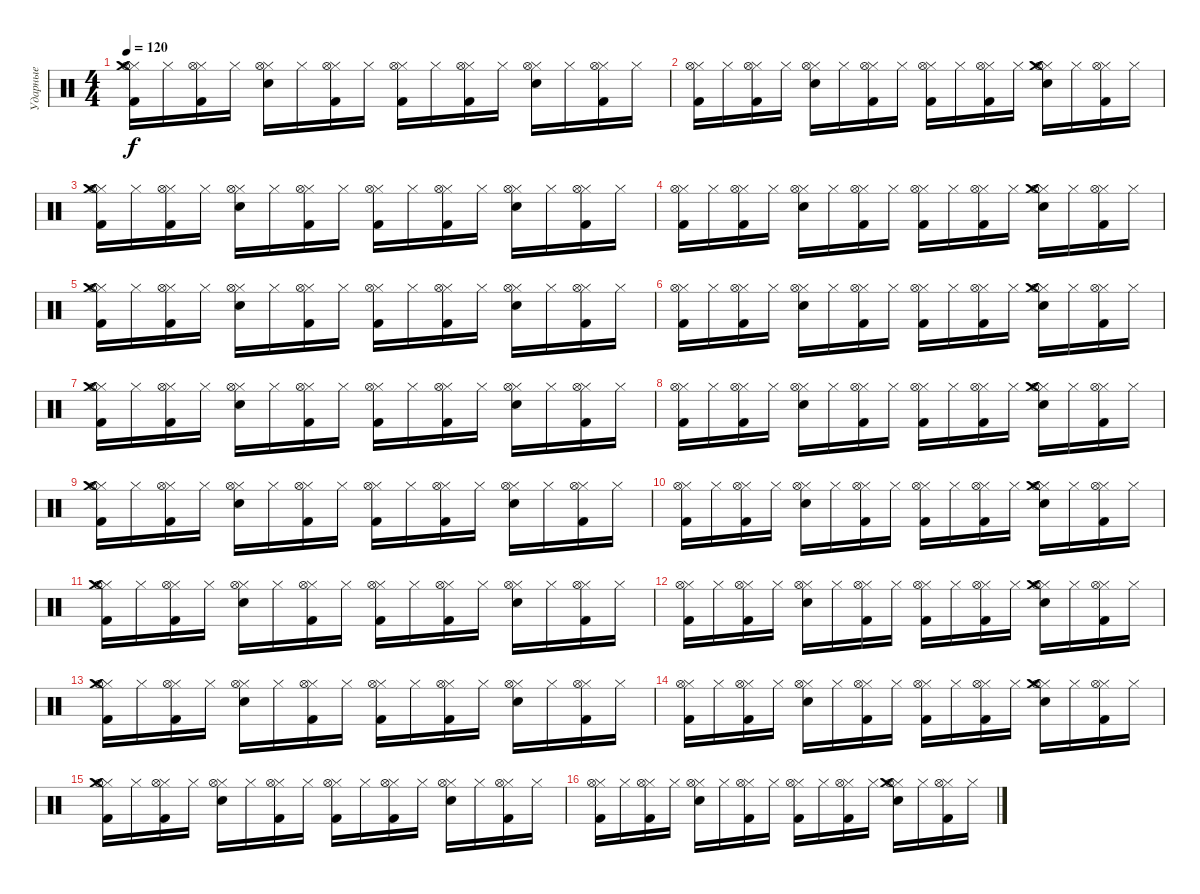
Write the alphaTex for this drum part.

\track ("Ударные" "Ударные") {instrument percussion}
\staff {score}
\articulation defaults
\ts (4 4)
\tempo 120
\clef neutral
\ks c
("Hi-Hat (closed)" "Crash medium (hit)" "Hi-Hat (open)" "Kick (hit) 2").16{dy f} "Hi-Hat (closed)".16 ("Hi-Hat (closed)" "Hi-Hat (open)" "Kick (hit) 2").16 "Hi-Hat (closed)".16 ("Hi-Hat (closed)" "Snare (hit) 2" "Hi-Hat (open)").16 "Hi-Hat (closed)".16 ("Hi-Hat (closed)" "Hi-Hat (open)" "Kick (hit) 2").16 "Hi-Hat (closed)".16 ("Hi-Hat (closed)" "Hi-Hat (open)" "Kick (hit) 2").16 "Hi-Hat (closed)".16 ("Hi-Hat (closed)" "Hi-Hat (open)" "Kick (hit) 2").16 "Hi-Hat (closed)".16 ("Hi-Hat (closed)" "Snare (hit) 2" "Hi-Hat (open)").16 "Hi-Hat (closed)".16 ("Hi-Hat (closed)" "Hi-Hat (open)" "Kick (hit) 2").16 "Hi-Hat (closed)".16 |
("Hi-Hat (closed)" "Hi-Hat (open)" "Kick (hit) 2").16 "Hi-Hat (closed)".16 ("Hi-Hat (closed)" "Hi-Hat (open)" "Kick (hit) 2").16 "Hi-Hat (closed)".16 ("Hi-Hat (closed)" "Snare (hit) 2" "Hi-Hat (open)").16 "Hi-Hat (closed)".16 ("Hi-Hat (closed)" "Hi-Hat (open)" "Kick (hit) 2").16 "Hi-Hat (closed)".16 ("Hi-Hat (closed)" "Hi-Hat (open)" "Kick (hit) 2").16 "Hi-Hat (closed)".16 ("Hi-Hat (closed)" "Hi-Hat (open)" "Kick (hit) 2").16 "Hi-Hat (closed)".16 ("Hi-Hat (closed)" "Snare (hit) 2" "Hi-Hat (open)" "Crash medium (hit)").16 "Hi-Hat (closed)".16 ("Hi-Hat (closed)" "Hi-Hat (open)" "Kick (hit) 2").16 "Hi-Hat (closed)".16 |
("Hi-Hat (closed)" "Crash medium (hit)" "Hi-Hat (open)" "Kick (hit) 2").16 "Hi-Hat (closed)".16 ("Hi-Hat (closed)" "Hi-Hat (open)" "Kick (hit) 2").16 "Hi-Hat (closed)".16 ("Hi-Hat (closed)" "Snare (hit) 2" "Hi-Hat (open)").16 "Hi-Hat (closed)".16 ("Hi-Hat (closed)" "Hi-Hat (open)" "Kick (hit) 2").16 "Hi-Hat (closed)".16 ("Hi-Hat (closed)" "Hi-Hat (open)" "Kick (hit) 2").16 "Hi-Hat (closed)".16 ("Hi-Hat (closed)" "Hi-Hat (open)" "Kick (hit) 2").16 "Hi-Hat (closed)".16 ("Hi-Hat (closed)" "Snare (hit) 2" "Hi-Hat (open)").16 "Hi-Hat (closed)".16 ("Hi-Hat (closed)" "Hi-Hat (open)" "Kick (hit) 2").16 "Hi-Hat (closed)".16 |
("Hi-Hat (closed)" "Hi-Hat (open)" "Kick (hit) 2").16 "Hi-Hat (closed)".16 ("Hi-Hat (closed)" "Hi-Hat (open)" "Kick (hit) 2").16 "Hi-Hat (closed)".16 ("Hi-Hat (closed)" "Snare (hit) 2" "Hi-Hat (open)").16 "Hi-Hat (closed)".16 ("Hi-Hat (closed)" "Hi-Hat (open)" "Kick (hit) 2").16 "Hi-Hat (closed)".16 ("Hi-Hat (closed)" "Hi-Hat (open)" "Kick (hit) 2").16 "Hi-Hat (closed)".16 ("Hi-Hat (closed)" "Hi-Hat (open)" "Kick (hit) 2").16 "Hi-Hat (closed)".16 ("Hi-Hat (closed)" "Snare (hit) 2" "Hi-Hat (open)" "Crash medium (hit)").16 "Hi-Hat (closed)".16 ("Hi-Hat (closed)" "Hi-Hat (open)" "Kick (hit) 2").16 "Hi-Hat (closed)".16 |
("Hi-Hat (closed)" "Crash medium (hit)" "Hi-Hat (open)" "Kick (hit) 2").16 "Hi-Hat (closed)".16 ("Hi-Hat (closed)" "Hi-Hat (open)" "Kick (hit) 2").16 "Hi-Hat (closed)".16 ("Hi-Hat (closed)" "Snare (hit) 2" "Hi-Hat (open)").16 "Hi-Hat (closed)".16 ("Hi-Hat (closed)" "Hi-Hat (open)" "Kick (hit) 2").16 "Hi-Hat (closed)".16 ("Hi-Hat (closed)" "Hi-Hat (open)" "Kick (hit) 2").16 "Hi-Hat (closed)".16 ("Hi-Hat (closed)" "Hi-Hat (open)" "Kick (hit) 2").16 "Hi-Hat (closed)".16 ("Hi-Hat (closed)" "Snare (hit) 2" "Hi-Hat (open)").16 "Hi-Hat (closed)".16 ("Hi-Hat (closed)" "Hi-Hat (open)" "Kick (hit) 2").16 "Hi-Hat (closed)".16 |
("Hi-Hat (closed)" "Hi-Hat (open)" "Kick (hit) 2").16 "Hi-Hat (closed)".16 ("Hi-Hat (closed)" "Hi-Hat (open)" "Kick (hit) 2").16 "Hi-Hat (closed)".16 ("Hi-Hat (closed)" "Snare (hit) 2" "Hi-Hat (open)").16 "Hi-Hat (closed)".16 ("Hi-Hat (closed)" "Hi-Hat (open)" "Kick (hit) 2").16 "Hi-Hat (closed)".16 ("Hi-Hat (closed)" "Hi-Hat (open)" "Kick (hit) 2").16 "Hi-Hat (closed)".16 ("Hi-Hat (closed)" "Hi-Hat (open)" "Kick (hit) 2").16 "Hi-Hat (closed)".16 ("Hi-Hat (closed)" "Snare (hit) 2" "Hi-Hat (open)" "Crash medium (hit)").16 "Hi-Hat (closed)".16 ("Hi-Hat (closed)" "Hi-Hat (open)" "Kick (hit) 2").16 "Hi-Hat (closed)".16 |
("Hi-Hat (closed)" "Crash medium (hit)" "Hi-Hat (open)" "Kick (hit) 2").16 "Hi-Hat (closed)".16 ("Hi-Hat (closed)" "Hi-Hat (open)" "Kick (hit) 2").16 "Hi-Hat (closed)".16 ("Hi-Hat (closed)" "Snare (hit) 2" "Hi-Hat (open)").16 "Hi-Hat (closed)".16 ("Hi-Hat (closed)" "Hi-Hat (open)" "Kick (hit) 2").16 "Hi-Hat (closed)".16 ("Hi-Hat (closed)" "Hi-Hat (open)" "Kick (hit) 2").16 "Hi-Hat (closed)".16 ("Hi-Hat (closed)" "Hi-Hat (open)" "Kick (hit) 2").16 "Hi-Hat (closed)".16 ("Hi-Hat (closed)" "Snare (hit) 2" "Hi-Hat (open)").16 "Hi-Hat (closed)".16 ("Hi-Hat (closed)" "Hi-Hat (open)" "Kick (hit) 2").16 "Hi-Hat (closed)".16 |
("Hi-Hat (closed)" "Hi-Hat (open)" "Kick (hit) 2").16 "Hi-Hat (closed)".16 ("Hi-Hat (closed)" "Hi-Hat (open)" "Kick (hit) 2").16 "Hi-Hat (closed)".16 ("Hi-Hat (closed)" "Snare (hit) 2" "Hi-Hat (open)").16 "Hi-Hat (closed)".16 ("Hi-Hat (closed)" "Hi-Hat (open)" "Kick (hit) 2").16 "Hi-Hat (closed)".16 ("Hi-Hat (closed)" "Hi-Hat (open)" "Kick (hit) 2").16 "Hi-Hat (closed)".16 ("Hi-Hat (closed)" "Hi-Hat (open)" "Kick (hit) 2").16 "Hi-Hat (closed)".16 ("Hi-Hat (closed)" "Snare (hit) 2" "Hi-Hat (open)" "Crash medium (hit)").16 "Hi-Hat (closed)".16 ("Hi-Hat (closed)" "Hi-Hat (open)" "Kick (hit) 2").16 "Hi-Hat (closed)".16 |
("Hi-Hat (closed)" "Crash medium (hit)" "Hi-Hat (open)" "Kick (hit) 2").16 "Hi-Hat (closed)".16 ("Hi-Hat (closed)" "Hi-Hat (open)" "Kick (hit) 2").16 "Hi-Hat (closed)".16 ("Hi-Hat (closed)" "Snare (hit) 2" "Hi-Hat (open)").16 "Hi-Hat (closed)".16 ("Hi-Hat (closed)" "Hi-Hat (open)" "Kick (hit) 2").16 "Hi-Hat (closed)".16 ("Hi-Hat (closed)" "Hi-Hat (open)" "Kick (hit) 2").16 "Hi-Hat (closed)".16 ("Hi-Hat (closed)" "Hi-Hat (open)" "Kick (hit) 2").16 "Hi-Hat (closed)".16 ("Hi-Hat (closed)" "Snare (hit) 2" "Hi-Hat (open)").16 "Hi-Hat (closed)".16 ("Hi-Hat (closed)" "Hi-Hat (open)" "Kick (hit) 2").16 "Hi-Hat (closed)".16 |
("Hi-Hat (closed)" "Hi-Hat (open)" "Kick (hit) 2").16 "Hi-Hat (closed)".16 ("Hi-Hat (closed)" "Hi-Hat (open)" "Kick (hit) 2").16 "Hi-Hat (closed)".16 ("Hi-Hat (closed)" "Snare (hit) 2" "Hi-Hat (open)").16 "Hi-Hat (closed)".16 ("Hi-Hat (closed)" "Hi-Hat (open)" "Kick (hit) 2").16 "Hi-Hat (closed)".16 ("Hi-Hat (closed)" "Hi-Hat (open)" "Kick (hit) 2").16 "Hi-Hat (closed)".16 ("Hi-Hat (closed)" "Hi-Hat (open)" "Kick (hit) 2").16 "Hi-Hat (closed)".16 ("Hi-Hat (closed)" "Snare (hit) 2" "Hi-Hat (open)" "Crash medium (hit)").16 "Hi-Hat (closed)".16 ("Hi-Hat (closed)" "Hi-Hat (open)" "Kick (hit) 2").16 "Hi-Hat (closed)".16 |
("Hi-Hat (closed)" "Crash medium (hit)" "Hi-Hat (open)" "Kick (hit) 2").16 "Hi-Hat (closed)".16 ("Hi-Hat (closed)" "Hi-Hat (open)" "Kick (hit) 2").16 "Hi-Hat (closed)".16 ("Hi-Hat (closed)" "Snare (hit) 2" "Hi-Hat (open)").16 "Hi-Hat (closed)".16 ("Hi-Hat (closed)" "Hi-Hat (open)" "Kick (hit) 2").16 "Hi-Hat (closed)".16 ("Hi-Hat (closed)" "Hi-Hat (open)" "Kick (hit) 2").16 "Hi-Hat (closed)".16 ("Hi-Hat (closed)" "Hi-Hat (open)" "Kick (hit) 2").16 "Hi-Hat (closed)".16 ("Hi-Hat (closed)" "Snare (hit) 2" "Hi-Hat (open)").16 "Hi-Hat (closed)".16 ("Hi-Hat (closed)" "Hi-Hat (open)" "Kick (hit) 2").16 "Hi-Hat (closed)".16 |
("Hi-Hat (closed)" "Hi-Hat (open)" "Kick (hit) 2").16 "Hi-Hat (closed)".16 ("Hi-Hat (closed)" "Hi-Hat (open)" "Kick (hit) 2").16 "Hi-Hat (closed)".16 ("Hi-Hat (closed)" "Snare (hit) 2" "Hi-Hat (open)").16 "Hi-Hat (closed)".16 ("Hi-Hat (closed)" "Hi-Hat (open)" "Kick (hit) 2").16 "Hi-Hat (closed)".16 ("Hi-Hat (closed)" "Hi-Hat (open)" "Kick (hit) 2").16 "Hi-Hat (closed)".16 ("Hi-Hat (closed)" "Hi-Hat (open)" "Kick (hit) 2").16 "Hi-Hat (closed)".16 ("Hi-Hat (closed)" "Snare (hit) 2" "Hi-Hat (open)" "Crash medium (hit)").16 "Hi-Hat (closed)".16 ("Hi-Hat (closed)" "Hi-Hat (open)" "Kick (hit) 2").16 "Hi-Hat (closed)".16 |
("Hi-Hat (closed)" "Crash medium (hit)" "Hi-Hat (open)" "Kick (hit) 2").16 "Hi-Hat (closed)".16 ("Hi-Hat (closed)" "Hi-Hat (open)" "Kick (hit) 2").16 "Hi-Hat (closed)".16 ("Hi-Hat (closed)" "Snare (hit) 2" "Hi-Hat (open)").16 "Hi-Hat (closed)".16 ("Hi-Hat (closed)" "Hi-Hat (open)" "Kick (hit) 2").16 "Hi-Hat (closed)".16 ("Hi-Hat (closed)" "Hi-Hat (open)" "Kick (hit) 2").16 "Hi-Hat (closed)".16 ("Hi-Hat (closed)" "Hi-Hat (open)" "Kick (hit) 2").16 "Hi-Hat (closed)".16 ("Hi-Hat (closed)" "Snare (hit) 2" "Hi-Hat (open)").16 "Hi-Hat (closed)".16 ("Hi-Hat (closed)" "Hi-Hat (open)" "Kick (hit) 2").16 "Hi-Hat (closed)".16 |
("Hi-Hat (closed)" "Hi-Hat (open)" "Kick (hit) 2").16 "Hi-Hat (closed)".16 ("Hi-Hat (closed)" "Hi-Hat (open)" "Kick (hit) 2").16 "Hi-Hat (closed)".16 ("Hi-Hat (closed)" "Snare (hit) 2" "Hi-Hat (open)").16 "Hi-Hat (closed)".16 ("Hi-Hat (closed)" "Hi-Hat (open)" "Kick (hit) 2").16 "Hi-Hat (closed)".16 ("Hi-Hat (closed)" "Hi-Hat (open)" "Kick (hit) 2").16 "Hi-Hat (closed)".16 ("Hi-Hat (closed)" "Hi-Hat (open)" "Kick (hit) 2").16 "Hi-Hat (closed)".16 ("Hi-Hat (closed)" "Snare (hit) 2" "Hi-Hat (open)" "Crash medium (hit)").16 "Hi-Hat (closed)".16 ("Hi-Hat (closed)" "Hi-Hat (open)" "Kick (hit) 2").16 "Hi-Hat (closed)".16 |
("Hi-Hat (closed)" "Crash medium (hit)" "Hi-Hat (open)" "Kick (hit) 2").16 "Hi-Hat (closed)".16 ("Hi-Hat (closed)" "Hi-Hat (open)" "Kick (hit) 2").16 "Hi-Hat (closed)".16 ("Hi-Hat (closed)" "Snare (hit) 2" "Hi-Hat (open)").16 "Hi-Hat (closed)".16 ("Hi-Hat (closed)" "Hi-Hat (open)" "Kick (hit) 2").16 "Hi-Hat (closed)".16 ("Hi-Hat (closed)" "Hi-Hat (open)" "Kick (hit) 2").16 "Hi-Hat (closed)".16 ("Hi-Hat (closed)" "Hi-Hat (open)" "Kick (hit) 2").16 "Hi-Hat (closed)".16 ("Hi-Hat (closed)" "Snare (hit) 2" "Hi-Hat (open)").16 "Hi-Hat (closed)".16 ("Hi-Hat (closed)" "Hi-Hat (open)" "Kick (hit) 2").16 "Hi-Hat (closed)".16 |
("Hi-Hat (closed)" "Hi-Hat (open)" "Kick (hit) 2").16 "Hi-Hat (closed)".16 ("Hi-Hat (closed)" "Hi-Hat (open)" "Kick (hit) 2").16 "Hi-Hat (closed)".16 ("Hi-Hat (closed)" "Snare (hit) 2" "Hi-Hat (open)").16 "Hi-Hat (closed)".16 ("Hi-Hat (closed)" "Hi-Hat (open)" "Kick (hit) 2").16 "Hi-Hat (closed)".16 ("Hi-Hat (closed)" "Hi-Hat (open)" "Kick (hit) 2").16 "Hi-Hat (closed)".16 ("Hi-Hat (closed)" "Hi-Hat (open)" "Kick (hit) 2").16 "Hi-Hat (closed)".16 ("Hi-Hat (closed)" "Snare (hit) 2" "Hi-Hat (open)" "Crash medium (hit)").16 "Hi-Hat (closed)".16 ("Hi-Hat (closed)" "Hi-Hat (open)" "Kick (hit) 2").16 "Hi-Hat (closed)".16
